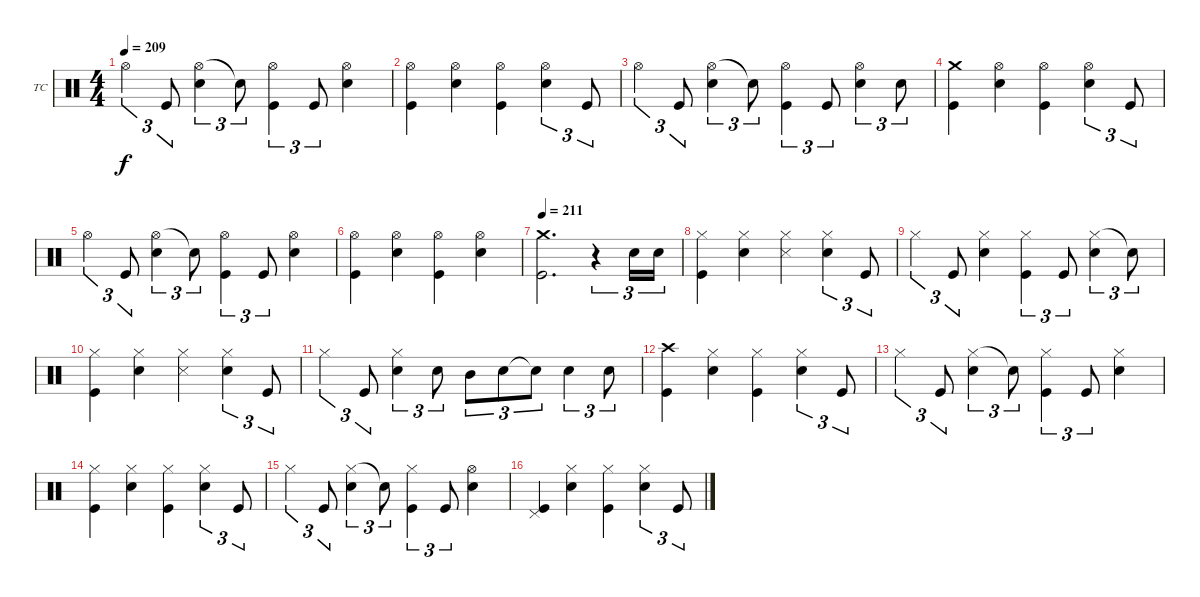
\defaultSystemsLayout 4
\bracketExtendMode groupsimilarinstruments
\firstSystemTrackNameOrientation horizontal
\otherSystemsTrackNameOrientation horizontal
\track ("Drums - Tre Cool" "TC") {instrument percussion}
\staff {score}
\articulation defaults
\ts (4 4)
\tempo 209
\clef neutral
\ks c "Hi-Hat (open)".4{tu (3 2) dy f} "Kick (hit)".8{tu (3 2)}
("Hi-Hat (open)" "Snare (hit) 2").4{tu (3 2)} "Snare (hit) 2"{t}.8{tu (3 2)} ("Hi-Hat (open)" "Kick (hit)").4{tu (3 2)} "Kick (hit)".8{tu (3 2)} ("Hi-Hat (open)" "Snare (hit) 2").4 |
("Hi-Hat (open)" "Kick (hit)").4 ("Hi-Hat (open)" "Snare (hit) 2").4 ("Hi-Hat (open)" "Kick (hit)").4 ("Hi-Hat (open)" "Snare (hit) 2").4{tu (3 2)} "Kick (hit)".8{tu (3 2)} |
"Hi-Hat (open)".4{tu (3 2)} "Kick (hit)".8{tu (3 2)} ("Hi-Hat (open)" "Snare (hit) 2").4{tu (3 2)} "Snare (hit) 2"{t}.8{tu (3 2)} ("Hi-Hat (open)" "Kick (hit)").4{tu (3 2)} "Kick (hit)".8{tu (3 2)} ("Hi-Hat (open)" "Snare (hit) 2").4{tu (3 2)} "Snare (hit) 2".8{tu (3 2)} |
("Crash medium (hit)" "Kick (hit)").4 ("Hi-Hat (open)" "Snare (hit) 2").4 ("Hi-Hat (open)" "Kick (hit)").4 ("Hi-Hat (open)" "Snare (hit) 2").4{tu (3 2)} "Kick (hit)".8{tu (3 2)} |
"Hi-Hat (open)".4{tu (3 2)} "Kick (hit)".8{tu (3 2)} ("Hi-Hat (open)" "Snare (hit) 2").4{tu (3 2)} "Snare (hit) 2"{t}.8{tu (3 2)} ("Hi-Hat (open)" "Kick (hit)").4{tu (3 2)} "Kick (hit)".8{tu (3 2)} ("Hi-Hat (open)" "Snare (hit) 2").4 |
("Hi-Hat (open)" "Kick (hit)").4 ("Hi-Hat (open)" "Snare (hit) 2").4 ("Hi-Hat (open)" "Kick (hit)").4 ("Hi-Hat (open)" "Snare (hit) 2").4 |
\tempo 211
("Crash medium (hit)" "Kick (hit)").2{d} r.4{tu (3 2)} "Snare (hit) 2".16{tu (3 2)} "Snare (hit) 2".16{tu (3 2)} |
("Hi-Hat (closed)" "Kick (hit)").4 ("Hi-Hat (closed)" "Snare (hit) 2").4 ("Hi-Hat (closed)" "Snare (side stick) 3").4 ("Hi-Hat (closed)" "Snare (hit) 2").4{tu (3 2)} "Kick (hit)".8{tu (3 2)} |
"Hi-Hat (closed)".4{tu (3 2)} "Kick (hit)".8{tu (3 2)} ("Hi-Hat (closed)" "Snare (hit) 2").4 ("Hi-Hat (closed)" "Kick (hit)").4{tu (3 2)} "Kick (hit)".8{tu (3 2)} ("Hi-Hat (closed)" "Snare (hit) 2").4{tu (3 2)} "Snare (hit) 2"{t}.8{tu (3 2)} |
("Hi-Hat (closed)" "Kick (hit)").4 ("Hi-Hat (closed)" "Snare (hit) 2").4 ("Hi-Hat (closed)" "Snare (side stick) 3").4 ("Hi-Hat (closed)" "Snare (hit) 2").4{tu (3 2)} "Kick (hit)".8{tu (3 2)} |
"Hi-Hat (closed)".4{tu (3 2)} "Kick (hit)".8{tu (3 2)} ("Hi-Hat (closed)" "Snare (hit) 2").4{tu (3 2)} "Snare (hit) 2".8{tu (3 2)} "Mid Tom (hit)".8{tu (3 2)} "Snare (hit) 2".8{tu (3 2)} "Snare (hit) 2"{t}.8{tu (3 2)} "Snare (hit) 2".4{tu (3 2)} "Snare (hit) 2".8{tu (3 2)} |
("Crash high (hit)" "Kick (hit)").4 ("Hi-Hat (closed)" "Snare (hit) 2").4 ("Hi-Hat (closed)" "Kick (hit)").4 ("Hi-Hat (closed)" "Snare (hit) 2").4{tu (3 2)} "Kick (hit)".8{tu (3 2)} |
"Hi-Hat (closed)".4{tu (3 2)} "Kick (hit)".8{tu (3 2)} ("Hi-Hat (closed)" "Snare (hit) 2").4{tu (3 2)} "Snare (hit) 2"{t}.8{tu (3 2)} ("Hi-Hat (closed)" "Kick (hit)").4{tu (3 2)} "Kick (hit)".8{tu (3 2)} ("Hi-Hat (closed)" "Snare (hit) 2").4 |
("Hi-Hat (closed)" "Kick (hit)").4 ("Hi-Hat (closed)" "Snare (hit) 2").4 ("Hi-Hat (closed)" "Kick (hit)").4 ("Hi-Hat (closed)" "Snare (hit) 2").4{tu (3 2)} "Kick (hit)".8{tu (3 2)} |
"Hi-Hat (closed)".4{tu (3 2)} "Kick (hit)".8{tu (3 2)} ("Hi-Hat (closed)" "Snare (hit) 2").4{tu (3 2)} "Snare (hit) 2"{t}.8{tu (3 2)} ("Hi-Hat (closed)" "Kick (hit)").4{tu (3 2)} "Kick (hit)".8{tu (3 2)} ("Hi-Hat (open)" "Snare (hit) 2").4 |
("Pedal Hi-Hat (hit)" "Kick (hit)").4 ("Hi-Hat (closed)" "Snare (hit) 2").4 ("Hi-Hat (closed)" "Kick (hit)").4 ("Hi-Hat (closed)" "Snare (hit) 2").4{tu (3 2)} "Kick (hit)".8{tu (3 2)}
